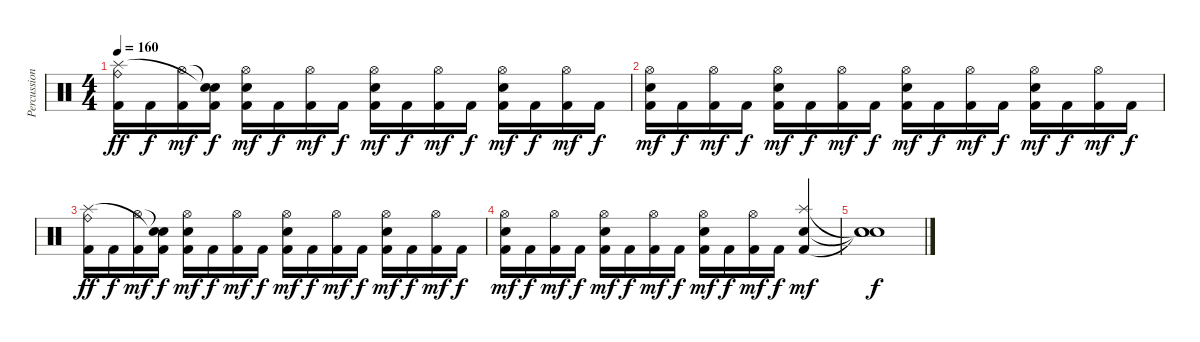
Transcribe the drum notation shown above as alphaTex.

\track ("Percussioni" "Percussion") {instrument percussion}
\staff {score}
\articulation defaults
\ts (4 4)
\tempo 160
\clef neutral
\ks c
("Kick (hit) 2" "Ride (bell)" "Splash (hit)").16{dy ff} "Kick (hit) 2".16{dy f} ("Kick (hit) 2" "Hi-Hat (open)").16{dy mf} ("Kick (hit) 2" "Snare (hit)"{t} "Snare (hit)"{t}).16{dy f} ("Kick (hit) 2" "Snare (hit) 2" "Hi-Hat (open)").16{dy mf} "Kick (hit) 2".16{dy f} ("Kick (hit) 2" "Hi-Hat (open)").16{dy mf} "Kick (hit) 2".16{dy f} ("Kick (hit) 2" "Snare (hit) 2" "Hi-Hat (open)").16{dy mf} "Kick (hit) 2".16{dy f} ("Kick (hit) 2" "Hi-Hat (open)").16{dy mf} "Kick (hit) 2".16{dy f} ("Kick (hit) 2" "Snare (hit) 2" "Hi-Hat (open)").16{dy mf} "Kick (hit) 2".16{dy f} ("Kick (hit) 2" "Hi-Hat (open)").16{dy mf} "Kick (hit) 2".16{dy f} |
("Kick (hit) 2" "Snare (hit) 2" "Hi-Hat (open)").16{dy mf} "Kick (hit) 2".16{dy f} ("Kick (hit) 2" "Hi-Hat (open)").16{dy mf} "Kick (hit) 2".16{dy f} ("Kick (hit) 2" "Snare (hit) 2" "Hi-Hat (open)").16{dy mf} "Kick (hit) 2".16{dy f} ("Kick (hit) 2" "Hi-Hat (open)").16{dy mf} "Kick (hit) 2".16{dy f} ("Kick (hit) 2" "Snare (hit) 2" "Hi-Hat (open)").16{dy mf} "Kick (hit) 2".16{dy f} ("Kick (hit) 2" "Hi-Hat (open)").16{dy mf} "Kick (hit) 2".16{dy f} ("Kick (hit) 2" "Snare (hit) 2" "Hi-Hat (open)").16{dy mf} "Kick (hit) 2".16{dy f} ("Kick (hit) 2" "Hi-Hat (open)").16{dy mf} "Kick (hit) 2".16{dy f} |
("Kick (hit) 2" "Ride (bell)" "Splash (hit)").16{dy ff} "Kick (hit) 2".16{dy f} ("Kick (hit) 2" "Hi-Hat (open)").16{dy mf} ("Kick (hit) 2" "Snare (hit)"{t} "Snare (hit)"{t}).16{dy f} ("Kick (hit) 2" "Snare (hit) 2" "Hi-Hat (open)").16{dy mf} "Kick (hit) 2".16{dy f} ("Kick (hit) 2" "Hi-Hat (open)").16{dy mf} "Kick (hit) 2".16{dy f} ("Kick (hit) 2" "Snare (hit) 2" "Hi-Hat (open)").16{dy mf} "Kick (hit) 2".16{dy f} ("Kick (hit) 2" "Hi-Hat (open)").16{dy mf} "Kick (hit) 2".16{dy f} ("Kick (hit) 2" "Snare (hit) 2" "Hi-Hat (open)").16{dy mf} "Kick (hit) 2".16{dy f} ("Kick (hit) 2" "Hi-Hat (open)").16{dy mf} "Kick (hit) 2".16{dy f} |
("Kick (hit) 2" "Snare (hit) 2" "Hi-Hat (open)").16{dy mf} "Kick (hit) 2".16{dy f} ("Kick (hit) 2" "Hi-Hat (open)").16{dy mf} "Kick (hit) 2".16{dy f} ("Kick (hit) 2" "Snare (hit) 2" "Hi-Hat (open)").16{dy mf} "Kick (hit) 2".16{dy f} ("Kick (hit) 2" "Hi-Hat (open)").16{dy mf} "Kick (hit) 2".16{dy f} ("Kick (hit) 2" "Snare (hit) 2" "Hi-Hat (open)").16{dy mf} "Kick (hit) 2".16{dy f} ("Kick (hit) 2" "Hi-Hat (open)").16{dy mf} "Kick (hit) 2".16{dy f} ("Kick (hit) 2" "Snare (hit) 2" "Splash (hit)").4{dy mf} |
("Snare (hit)"{t} "Snare (hit)"{t} "Snare (hit)"{t}).1{dy f}
